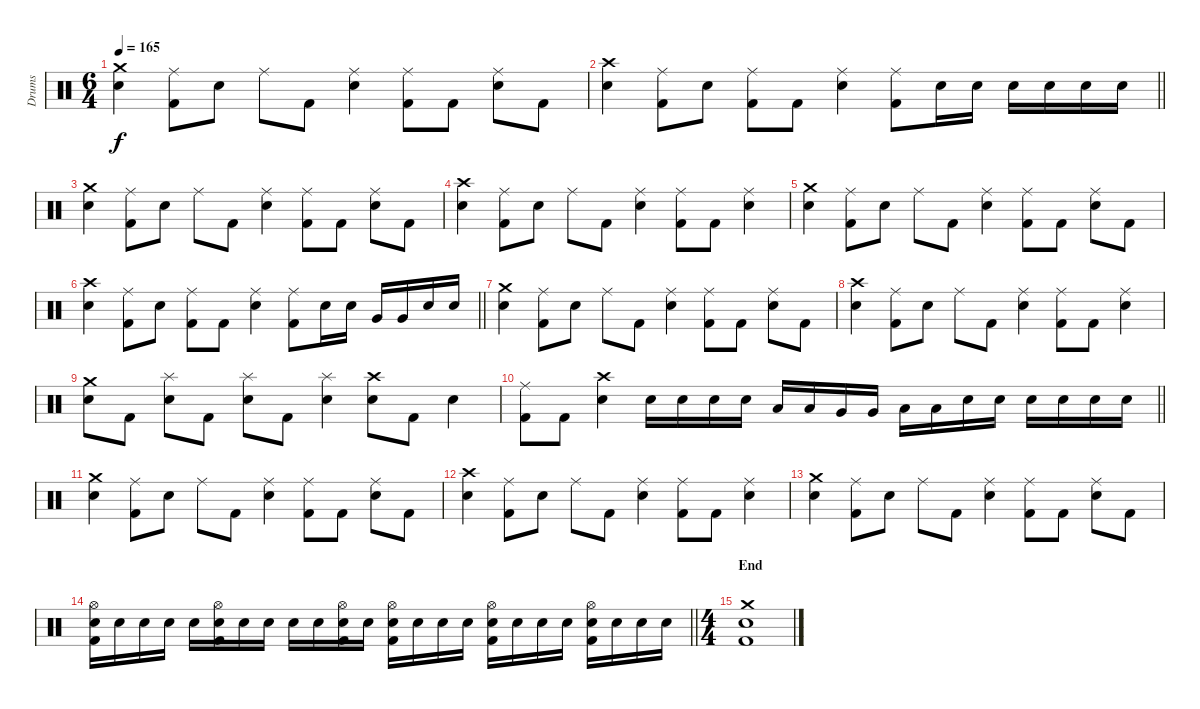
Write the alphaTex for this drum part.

\track ("Drums" "Drums") {instrument percussion}
\staff {score}
\articulation defaults
\ts (6 4)
\tempo 165
\clef neutral
\ks c
("Snare (hit) 2" "Crash medium (hit)").4{dy f} ("Kick (hit) 2" "Ride (middle)").8 "Snare (hit) 2".8 "Ride (middle)".8 "Kick (hit) 2".8 ("Snare (hit) 2" "Ride (middle)").4 ("Kick (hit) 2" "Ride (middle)").8 "Kick (hit) 2".8 ("Snare (hit) 2" "Ride (middle)").8 "Kick (hit) 2".8 |
\barLineRight lightlight
("Snare (hit) 2" "Crash high (hit)").4 ("Kick (hit) 2" "Ride (middle)").8 "Snare (hit) 2".8 ("Kick (hit) 2" "Ride (middle)").8 "Kick (hit) 2".8 ("Snare (hit) 2" "Ride (middle)").4 ("Kick (hit) 2" "Ride (middle)").8 "Snare (hit) 2".16 "Snare (hit) 2".16 "Snare (hit) 2".16 "Snare (hit) 2".16 "Snare (hit) 2".16 "Snare (hit) 2".16 |
\section ("" "")
("Snare (hit) 2" "Crash medium (hit)").4 ("Kick (hit) 2" "Ride (middle)").8 "Snare (hit) 2".8 "Ride (middle)".8 "Kick (hit) 2".8 ("Snare (hit) 2" "Ride (middle)").4 ("Kick (hit) 2" "Ride (middle)").8 "Kick (hit) 2".8 ("Snare (hit) 2" "Ride (middle)").8 "Kick (hit) 2".8 |
("Snare (hit) 2" "Crash high (hit)").4 ("Kick (hit) 2" "Ride (middle)").8 "Snare (hit) 2".8 "Ride (middle)".8 "Kick (hit) 2".8 ("Snare (hit) 2" "Ride (middle)").4 ("Kick (hit) 2" "Ride (middle)").8 "Kick (hit) 2".8 ("Snare (hit) 2" "Ride (middle)").4 |
("Snare (hit) 2" "Crash medium (hit)").4 ("Kick (hit) 2" "Ride (middle)").8 "Snare (hit) 2".8 "Ride (middle)".8 "Kick (hit) 2".8 ("Snare (hit) 2" "Ride (middle)").4 ("Kick (hit) 2" "Ride (middle)").8 "Kick (hit) 2".8 ("Snare (hit) 2" "Ride (middle)").8 "Kick (hit) 2".8 |
\barLineRight lightlight
("Snare (hit) 2" "Crash high (hit)").4 ("Kick (hit) 2" "Ride (middle)").8 "Snare (hit) 2".8 ("Kick (hit) 2" "Ride (middle)").8 "Kick (hit) 2".8 ("Snare (hit) 2" "Ride (middle)").4 ("Kick (hit) 2" "Ride (middle)").8 "Snare (hit) 2".16 "Snare (hit) 2".16 "Very Low Tom (hit)".16 "Very Low Tom (hit)".16 "Snare (hit) 2".16 "Snare (hit) 2".16 |
\section ("" "")
("Snare (hit) 2" "Crash medium (hit)").4 ("Kick (hit) 2" "Ride (middle)").8 "Snare (hit) 2".8 "Ride (middle)".8 "Kick (hit) 2".8 ("Snare (hit) 2" "Ride (middle)").4 ("Kick (hit) 2" "Ride (middle)").8 "Kick (hit) 2".8 ("Snare (hit) 2" "Ride (middle)").8 "Kick (hit) 2".8 |
("Snare (hit) 2" "Crash high (hit)").4 ("Kick (hit) 2" "Ride (middle)").8 "Snare (hit) 2".8 "Ride (middle)".8 "Kick (hit) 2".8 ("Snare (hit) 2" "Ride (middle)").4 ("Kick (hit) 2" "Ride (middle)").8 "Kick (hit) 2".8 ("Snare (hit) 2" "Ride (middle)").4 |
("Snare (hit) 2" "Crash medium (hit)").8 "Kick (hit) 2".8 ("Snare (hit) 2" "Splash (hit)").8 "Kick (hit) 2".8 ("Snare (hit) 2" "Splash (hit)").8 "Kick (hit) 2".8 ("Snare (hit) 2" "Splash (hit)").4 ("Snare (hit) 2" "Crash high (hit)").8 "Kick (hit) 2".8 "Snare (hit) 2".4 |
\barLineRight lightlight
("Kick (hit) 2" "Ride (middle)").8 "Kick (hit) 2".8 ("Snare (hit) 2" "Crash high (hit)").4 "Snare (hit) 2".16 "Snare (hit) 2".16 "Snare (hit) 2".16 "Snare (hit) 2".16 "Low Tom (hit)".16 "Low Tom (hit)".16 "Very Low Tom (hit)".16 "Very Low Tom (hit)".16 "Low Floor Tom (hit)".16 "Low Floor Tom (hit)".16 "Snare (hit) 2".16 "Snare (hit) 2".16 "Snare (hit) 2".16 "Snare (hit) 2".16 "Snare (hit) 2".16 "Snare (hit) 2".16 |
\section ("" "")
("Snare (hit) 2" "Crash medium (hit)").4 ("Kick (hit) 2" "Ride (middle)").8 "Snare (hit) 2".8 "Ride (middle)".8 "Kick (hit) 2".8 ("Snare (hit) 2" "Ride (middle)").4 ("Kick (hit) 2" "Ride (middle)").8 "Kick (hit) 2".8 ("Snare (hit) 2" "Ride (middle)").8 "Kick (hit) 2".8 |
("Snare (hit) 2" "Crash high (hit)").4 ("Kick (hit) 2" "Ride (middle)").8 "Snare (hit) 2".8 "Ride (middle)".8 "Kick (hit) 2".8 ("Snare (hit) 2" "Ride (middle)").4 ("Kick (hit) 2" "Ride (middle)").8 "Kick (hit) 2".8 ("Snare (hit) 2" "Ride (middle)").4 |
("Snare (hit) 2" "Crash medium (hit)").4 ("Kick (hit) 2" "Ride (middle)").8 "Snare (hit) 2".8 "Ride (middle)".8 "Kick (hit) 2".8 ("Snare (hit) 2" "Ride (middle)").4 ("Kick (hit) 2" "Ride (middle)").8 "Kick (hit) 2".8 ("Snare (hit) 2" "Ride (middle)").8 "Kick (hit) 2".8 |
\barLineRight lightlight
("Kick (hit) 2" "Snare (hit) 2" "Hi-Hat (open)").16{volume 11} "Snare (hit) 2".16 "Snare (hit) 2".16 "Snare (hit) 2".16 "Snare (hit) 2".16 ("Kick (hit) 2" "Snare (hit) 2" "Hi-Hat (open)").16 "Snare (hit) 2".16 "Snare (hit) 2".16 "Snare (hit) 2".16 "Snare (hit) 2".16 ("Kick (hit) 2" "Snare (hit) 2" "Hi-Hat (open)").16 "Snare (hit) 2".16 ("Kick (hit) 2" "Snare (hit) 2" "Hi-Hat (open)").16 "Snare (hit) 2".16 "Snare (hit) 2".16 "Snare (hit) 2".16 ("Kick (hit) 2" "Snare (hit) 2" "Hi-Hat (open)").16 "Snare (hit) 2".16 "Snare (hit) 2".16 "Snare (hit) 2".16 ("Kick (hit) 2" "Snare (hit) 2" "Hi-Hat (open)").16 "Snare (hit) 2".16 "Snare (hit) 2".16 "Snare (hit) 2".16 |
\ts (4 4)
\section ("" "End")
("Kick (hit) 2" "Snare (hit) 2" "Crash medium (hit)").1
